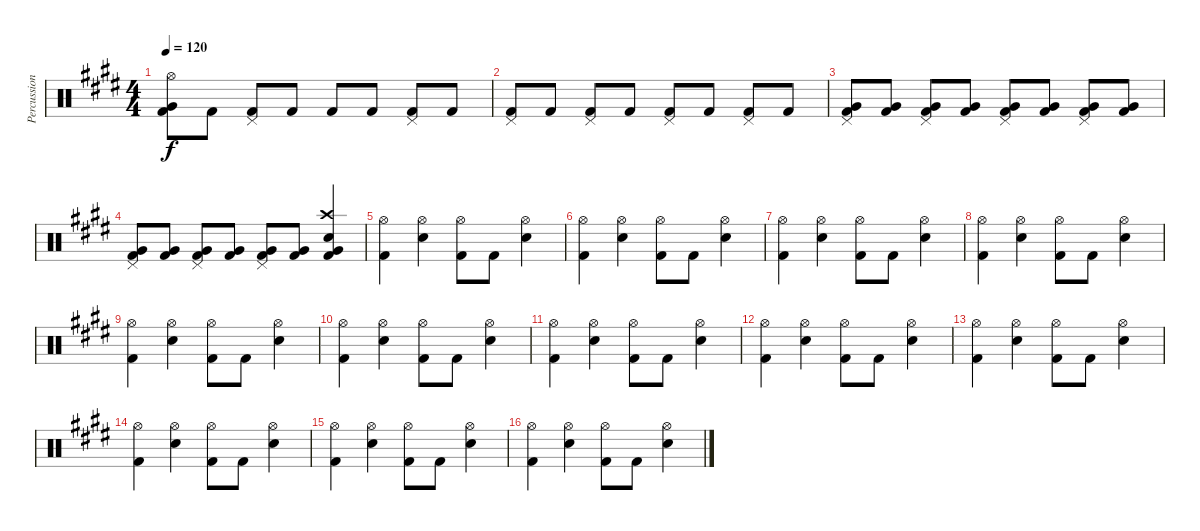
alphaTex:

\track ("Percussion" "Percussion") {instrument percussion}
\staff {score}
\articulation defaults
\ts (4 4)
\tempo 120
\clef neutral
\ks e
("Hi-Hat (open)" "Very Low Tom (hit)" "Kick (hit) 2").8{dy f} "Kick (hit) 2".8{volume 8} ("Pedal Hi-Hat (hit)" "Kick (hit) 2").8 "Kick (hit) 2".8 "Kick (hit) 2".8 "Kick (hit) 2".8 ("Pedal Hi-Hat (hit)" "Kick (hit) 2").8 "Kick (hit) 2".8 |
\ks c#minor
("Pedal Hi-Hat (hit)" "Kick (hit) 2").8{volume 9} "Kick (hit) 2".8 ("Pedal Hi-Hat (hit)" "Kick (hit) 2").8 "Kick (hit) 2".8 ("Pedal Hi-Hat (hit)" "Kick (hit) 2").8 "Kick (hit) 2".8 ("Pedal Hi-Hat (hit)" "Kick (hit) 2").8 "Kick (hit) 2".8 |
("Pedal Hi-Hat (hit)" "Very Low Tom (hit)" "Kick (hit) 2").8{volume 11} ("Very Low Tom (hit)" "Kick (hit) 2").8 ("Pedal Hi-Hat (hit)" "Very Low Tom (hit)" "Kick (hit) 2").8 ("Very Low Tom (hit)" "Kick (hit) 2").8 ("Pedal Hi-Hat (hit)" "Very Low Tom (hit)" "Kick (hit) 2").8 ("Very Low Tom (hit)" "Kick (hit) 2").8 ("Pedal Hi-Hat (hit)" "Very Low Tom (hit)" "Kick (hit) 2").8 ("Very Low Tom (hit)" "Kick (hit) 2").8 |
("Pedal Hi-Hat (hit)" "Very Low Tom (hit)" "Kick (hit) 2").8{volume 16} ("Very Low Tom (hit)" "Kick (hit) 2").8 ("Pedal Hi-Hat (hit)" "Very Low Tom (hit)" "Kick (hit) 2").8 ("Very Low Tom (hit)" "Kick (hit) 2").8 ("Pedal Hi-Hat (hit)" "Very Low Tom (hit)" "Kick (hit) 2").8 ("Very Low Tom (hit)" "Kick (hit) 2").8 ("Crash high (hit)" "Very Low Tom (hit)" "Snare (hit) 2" "Kick (hit) 2").4 |
\ks e
("Hi-Hat (open)" "Kick (hit) 2").4 ("Hi-Hat (open)" "Snare (hit) 2").4 ("Hi-Hat (open)" "Kick (hit) 2").8 "Kick (hit) 2".8 ("Hi-Hat (open)" "Snare (hit) 2").4 |
("Hi-Hat (open)" "Kick (hit) 2").4 ("Hi-Hat (open)" "Snare (hit) 2").4 ("Hi-Hat (open)" "Kick (hit) 2").8 "Kick (hit) 2".8 ("Hi-Hat (open)" "Snare (hit) 2").4 |
("Hi-Hat (open)" "Kick (hit) 2").4 ("Hi-Hat (open)" "Snare (hit) 2").4 ("Hi-Hat (open)" "Kick (hit) 2").8 "Kick (hit) 2".8 ("Hi-Hat (open)" "Snare (hit) 2").4 |
("Hi-Hat (open)" "Kick (hit) 2").4 ("Hi-Hat (open)" "Snare (hit) 2").4 ("Hi-Hat (open)" "Kick (hit) 2").8 "Kick (hit) 2".8 ("Hi-Hat (open)" "Snare (hit) 2").4 |
("Hi-Hat (open)" "Kick (hit) 2").4 ("Hi-Hat (open)" "Snare (hit) 2").4 ("Hi-Hat (open)" "Kick (hit) 2").8 "Kick (hit) 2".8 ("Hi-Hat (open)" "Snare (hit) 2").4 |
("Hi-Hat (open)" "Kick (hit) 2").4 ("Hi-Hat (open)" "Snare (hit) 2").4 ("Hi-Hat (open)" "Kick (hit) 2").8 "Kick (hit) 2".8 ("Hi-Hat (open)" "Snare (hit) 2").4 |
("Hi-Hat (open)" "Kick (hit) 2").4 ("Hi-Hat (open)" "Snare (hit) 2").4 ("Hi-Hat (open)" "Kick (hit) 2").8 "Kick (hit) 2".8 ("Hi-Hat (open)" "Snare (hit) 2").4 |
("Hi-Hat (open)" "Kick (hit) 2").4 ("Hi-Hat (open)" "Snare (hit) 2").4 ("Hi-Hat (open)" "Kick (hit) 2").8 "Kick (hit) 2".8 ("Hi-Hat (open)" "Snare (hit) 2").4 |
("Hi-Hat (open)" "Kick (hit) 2").4 ("Hi-Hat (open)" "Snare (hit) 2").4 ("Hi-Hat (open)" "Kick (hit) 2").8 "Kick (hit) 2".8 ("Hi-Hat (open)" "Snare (hit) 2").4 |
("Hi-Hat (open)" "Kick (hit) 2").4 ("Hi-Hat (open)" "Snare (hit) 2").4 ("Hi-Hat (open)" "Kick (hit) 2").8 "Kick (hit) 2".8 ("Hi-Hat (open)" "Snare (hit) 2").4 |
("Hi-Hat (open)" "Kick (hit) 2").4 ("Hi-Hat (open)" "Snare (hit) 2").4 ("Hi-Hat (open)" "Kick (hit) 2").8 "Kick (hit) 2".8 ("Hi-Hat (open)" "Snare (hit) 2").4 |
("Hi-Hat (open)" "Kick (hit) 2").4 ("Hi-Hat (open)" "Snare (hit) 2").4 ("Hi-Hat (open)" "Kick (hit) 2").8 "Kick (hit) 2".8 ("Hi-Hat (open)" "Snare (hit) 2").4
